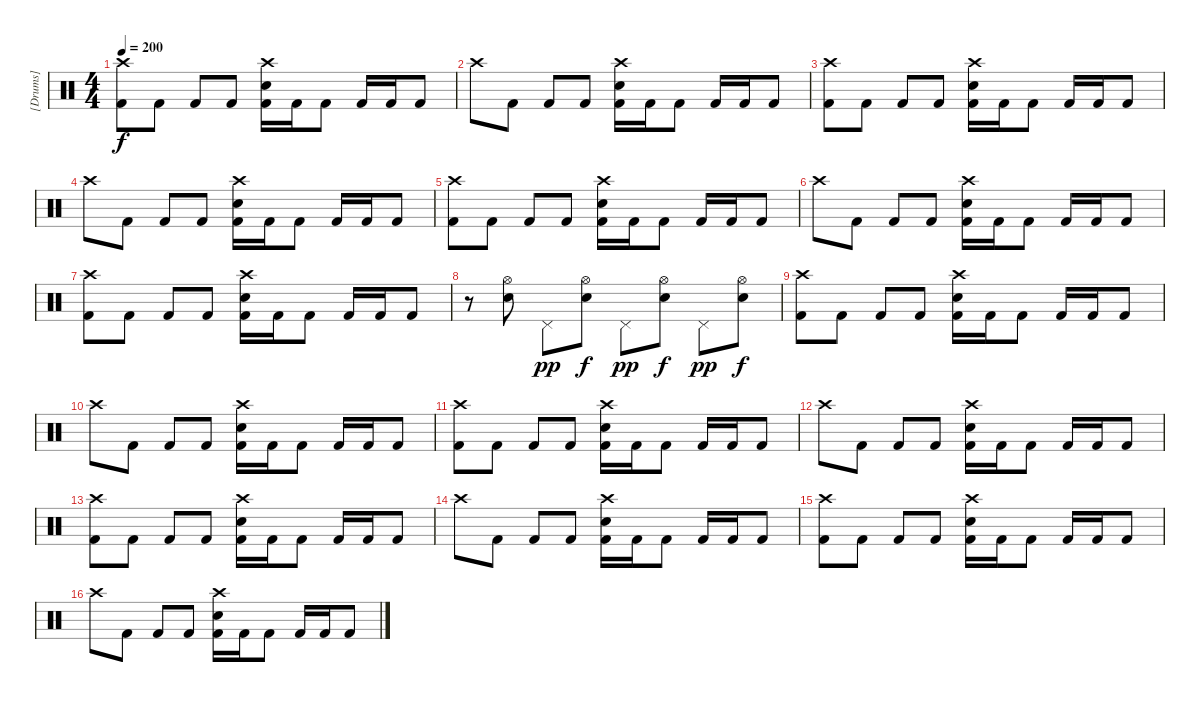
\track ("[Drums]" "[Drums]") {instrument percussion}
\staff {score}
\articulation defaults
\ts (4 4)
\tempo 200
\clef neutral
\ks c
("Crash high (hit)" "Kick (hit) 2").8{dy f} "Kick (hit) 2".8 "Kick (hit) 2".8 "Kick (hit) 2".8 ("Crash high (hit)" "Electric Snare (hit)" "Kick (hit) 2").16 "Kick (hit) 2".16 "Kick (hit) 2".8 "Kick (hit) 2".16 "Kick (hit) 2".16 "Kick (hit) 2".8 |
"Crash high (hit)".8 "Kick (hit) 2".8 "Kick (hit) 2".8 "Kick (hit) 2".8 ("Crash high (hit)" "Electric Snare (hit)" "Kick (hit) 2").16 "Kick (hit) 2".16 "Kick (hit) 2".8 "Kick (hit) 2".16 "Kick (hit) 2".16 "Kick (hit) 2".8 |
("Crash high (hit)" "Kick (hit) 2").8 "Kick (hit) 2".8 "Kick (hit) 2".8 "Kick (hit) 2".8 ("Crash high (hit)" "Electric Snare (hit)" "Kick (hit) 2").16 "Kick (hit) 2".16 "Kick (hit) 2".8 "Kick (hit) 2".16 "Kick (hit) 2".16 "Kick (hit) 2".8 |
"Crash high (hit)".8 "Kick (hit) 2".8 "Kick (hit) 2".8 "Kick (hit) 2".8 ("Crash high (hit)" "Electric Snare (hit)" "Kick (hit) 2").16 "Kick (hit) 2".16 "Kick (hit) 2".8 "Kick (hit) 2".16 "Kick (hit) 2".16 "Kick (hit) 2".8 |
("Crash high (hit)" "Kick (hit) 2").8 "Kick (hit) 2".8 "Kick (hit) 2".8 "Kick (hit) 2".8 ("Crash high (hit)" "Electric Snare (hit)" "Kick (hit) 2").16 "Kick (hit) 2".16 "Kick (hit) 2".8 "Kick (hit) 2".16 "Kick (hit) 2".16 "Kick (hit) 2".8 |
"Crash high (hit)".8 "Kick (hit) 2".8 "Kick (hit) 2".8 "Kick (hit) 2".8 ("Crash high (hit)" "Electric Snare (hit)" "Kick (hit) 2").16 "Kick (hit) 2".16 "Kick (hit) 2".8 "Kick (hit) 2".16 "Kick (hit) 2".16 "Kick (hit) 2".8 |
("Crash high (hit)" "Kick (hit) 2").8 "Kick (hit) 2".8 "Kick (hit) 2".8 "Kick (hit) 2".8 ("Crash high (hit)" "Electric Snare (hit)" "Kick (hit) 2").16 "Kick (hit) 2".16 "Kick (hit) 2".8 "Kick (hit) 2".16 "Kick (hit) 2".16 "Kick (hit) 2".8 |
r.8 ("Hi-Hat (open)" "Electric Snare (hit)").8 "Pedal Hi-Hat (hit)".8{dy pp} ("Hi-Hat (open)" "Electric Snare (hit)").8{dy f} "Pedal Hi-Hat (hit)".8{dy pp} ("Hi-Hat (open)" "Electric Snare (hit)").8{dy f} "Pedal Hi-Hat (hit)".8{dy pp} ("Hi-Hat (open)" "Electric Snare (hit)").8{dy f} |
("Crash high (hit)" "Kick (hit) 2").8 "Kick (hit) 2".8 "Kick (hit) 2".8 "Kick (hit) 2".8 ("Crash high (hit)" "Electric Snare (hit)" "Kick (hit) 2").16 "Kick (hit) 2".16 "Kick (hit) 2".8 "Kick (hit) 2".16 "Kick (hit) 2".16 "Kick (hit) 2".8 |
"Crash high (hit)".8 "Kick (hit) 2".8 "Kick (hit) 2".8 "Kick (hit) 2".8 ("Crash high (hit)" "Electric Snare (hit)" "Kick (hit) 2").16 "Kick (hit) 2".16 "Kick (hit) 2".8 "Kick (hit) 2".16 "Kick (hit) 2".16 "Kick (hit) 2".8 |
("Crash high (hit)" "Kick (hit) 2").8 "Kick (hit) 2".8 "Kick (hit) 2".8 "Kick (hit) 2".8 ("Crash high (hit)" "Electric Snare (hit)" "Kick (hit) 2").16 "Kick (hit) 2".16 "Kick (hit) 2".8 "Kick (hit) 2".16 "Kick (hit) 2".16 "Kick (hit) 2".8 |
"Crash high (hit)".8 "Kick (hit) 2".8 "Kick (hit) 2".8 "Kick (hit) 2".8 ("Crash high (hit)" "Electric Snare (hit)" "Kick (hit) 2").16 "Kick (hit) 2".16 "Kick (hit) 2".8 "Kick (hit) 2".16 "Kick (hit) 2".16 "Kick (hit) 2".8 |
("Crash high (hit)" "Kick (hit) 2").8 "Kick (hit) 2".8 "Kick (hit) 2".8 "Kick (hit) 2".8 ("Crash high (hit)" "Electric Snare (hit)" "Kick (hit) 2").16 "Kick (hit) 2".16 "Kick (hit) 2".8 "Kick (hit) 2".16 "Kick (hit) 2".16 "Kick (hit) 2".8 |
"Crash high (hit)".8 "Kick (hit) 2".8 "Kick (hit) 2".8 "Kick (hit) 2".8 ("Crash high (hit)" "Electric Snare (hit)" "Kick (hit) 2").16 "Kick (hit) 2".16 "Kick (hit) 2".8 "Kick (hit) 2".16 "Kick (hit) 2".16 "Kick (hit) 2".8 |
("Crash high (hit)" "Kick (hit) 2").8 "Kick (hit) 2".8 "Kick (hit) 2".8 "Kick (hit) 2".8 ("Crash high (hit)" "Electric Snare (hit)" "Kick (hit) 2").16 "Kick (hit) 2".16 "Kick (hit) 2".8 "Kick (hit) 2".16 "Kick (hit) 2".16 "Kick (hit) 2".8 |
"Crash high (hit)".8 "Kick (hit) 2".8 "Kick (hit) 2".8 "Kick (hit) 2".8 ("Crash high (hit)" "Electric Snare (hit)" "Kick (hit) 2").16 "Kick (hit) 2".16 "Kick (hit) 2".8 "Kick (hit) 2".16 "Kick (hit) 2".16 "Kick (hit) 2".8
